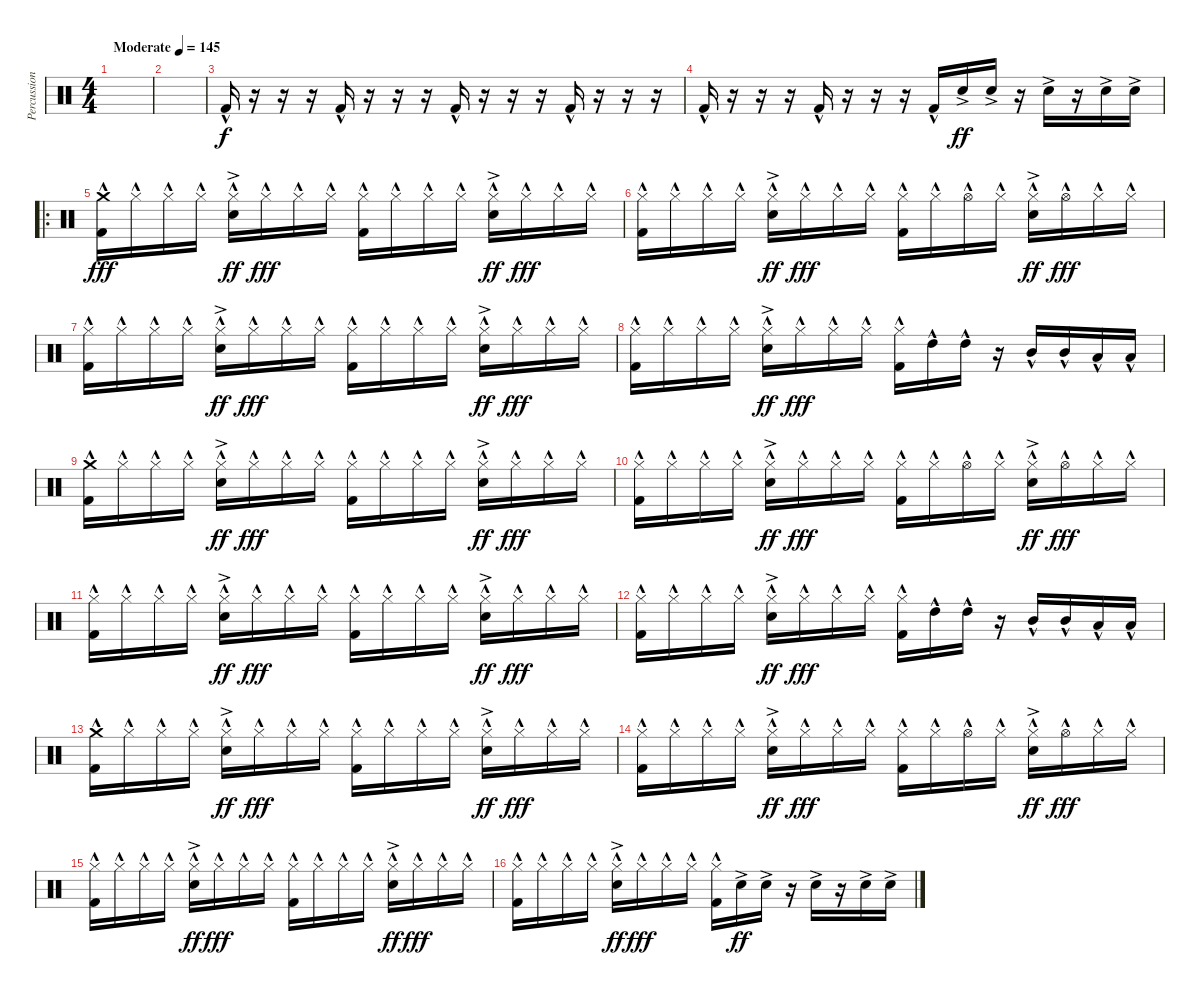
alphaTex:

\track ("Percussion" "Percussion") {instrument percussion bank 2}
\staff {score}
\articulation defaults
\ts (4 4)
\tempo (145 "Moderate")
\clef neutral
\ks c
|
|
"Kick (hit) 2"{hac}.16 r.16 r.16 r.16 "Kick (hit) 2"{hac}.16 r.16 r.16 r.16 "Kick (hit) 2"{hac}.16 r.16 r.16 r.16 "Kick (hit) 2"{hac}.16 r.16 r.16 r.16 |
"Kick (hit) 2"{hac}.16 r.16 r.16 r.16 "Kick (hit) 2"{hac}.16 r.16 r.16 r.16 "Kick (hit) 2"{hac}.16 "Snare (hit) 2"{ac}.16{dy ff} "Snare (hit) 2"{ac}.16 r.16 "Snare (hit) 2"{ac}.16 r.16 "Snare (hit) 2"{ac}.16 "Snare (hit) 2"{ac}.16 |
\ro
("Crash medium (hit)"{hac} "Kick (hit) 2"{hac}).16{dy fff} "Hi-Hat (closed)"{hac}.16 "Hi-Hat (closed)"{hac}.16 "Hi-Hat (closed)"{hac}.16 ("Hi-Hat (closed)"{hac} "Snare (hit) 2"{ac}).16{dy ff} "Hi-Hat (closed)"{hac}.16{dy fff} "Hi-Hat (closed)"{hac}.16 "Hi-Hat (closed)"{hac}.16 ("Hi-Hat (closed)"{hac} "Kick (hit) 2"{hac}).16 "Hi-Hat (closed)"{hac}.16 "Hi-Hat (closed)"{hac}.16 "Hi-Hat (closed)"{hac}.16 ("Hi-Hat (closed)"{hac} "Snare (hit) 2"{ac}).16{dy ff} "Hi-Hat (closed)"{hac}.16{dy fff} "Hi-Hat (closed)"{hac}.16 "Hi-Hat (closed)"{hac}.16 |
("Hi-Hat (closed)"{hac} "Kick (hit) 2"{hac}).16 "Hi-Hat (closed)"{hac}.16 "Hi-Hat (closed)"{hac}.16 "Hi-Hat (closed)"{hac}.16 ("Hi-Hat (closed)"{hac} "Snare (hit) 2"{ac}).16{dy ff} "Hi-Hat (closed)"{hac}.16{dy fff} "Hi-Hat (closed)"{hac}.16 "Hi-Hat (closed)"{hac}.16 ("Hi-Hat (closed)"{hac} "Kick (hit) 2"{hac}).16 "Hi-Hat (closed)"{hac}.16 "Hi-Hat (open)"{hac}.16 "Hi-Hat (closed)"{hac}.16 ("Hi-Hat (closed)"{hac} "Snare (hit) 2"{ac}).16{dy ff} "Hi-Hat (open)"{hac}.16{dy fff} "Hi-Hat (closed)"{hac}.16 "Hi-Hat (closed)"{hac}.16 |
("Hi-Hat (closed)"{hac} "Kick (hit) 2"{hac}).16 "Hi-Hat (closed)"{hac}.16 "Hi-Hat (closed)"{hac}.16 "Hi-Hat (closed)"{hac}.16 ("Hi-Hat (closed)"{hac} "Snare (hit) 2"{ac}).16{dy ff} "Hi-Hat (closed)"{hac}.16{dy fff} "Hi-Hat (closed)"{hac}.16 "Hi-Hat (closed)"{hac}.16 ("Hi-Hat (closed)"{hac} "Kick (hit) 2"{hac}).16 "Hi-Hat (closed)"{hac}.16 "Hi-Hat (closed)"{hac}.16 "Hi-Hat (closed)"{hac}.16 ("Hi-Hat (closed)"{hac} "Snare (hit) 2"{ac}).16{dy ff} "Hi-Hat (closed)"{hac}.16{dy fff} "Hi-Hat (closed)"{hac}.16 "Hi-Hat (closed)"{hac}.16 |
("Hi-Hat (closed)"{hac} "Kick (hit) 2"{hac}).16 "Hi-Hat (closed)"{hac}.16 "Hi-Hat (closed)"{hac}.16 "Hi-Hat (closed)"{hac}.16 ("Hi-Hat (closed)"{hac} "Snare (hit) 2"{ac}).16{dy ff} "Hi-Hat (closed)"{hac}.16{dy fff} "Hi-Hat (closed)"{hac}.16 "Hi-Hat (closed)"{hac}.16 ("Hi-Hat (closed)"{hac} "Kick (hit) 2"{hac}).16 "High Tom (hit)"{hac}.16 "High Tom (hit)"{hac}.16 r.16 "Mid Tom (hit)"{hac}.16 "Mid Tom (hit)"{hac}.16 "Low Tom (hit)"{hac}.16 "Low Tom (hit)"{hac}.16 |
("Crash medium (hit)"{hac} "Kick (hit) 2"{hac}).16 "Hi-Hat (closed)"{hac}.16 "Hi-Hat (closed)"{hac}.16 "Hi-Hat (closed)"{hac}.16 ("Hi-Hat (closed)"{hac} "Snare (hit) 2"{ac}).16{dy ff} "Hi-Hat (closed)"{hac}.16{dy fff} "Hi-Hat (closed)"{hac}.16 "Hi-Hat (closed)"{hac}.16 ("Hi-Hat (closed)"{hac} "Kick (hit) 2"{hac}).16 "Hi-Hat (closed)"{hac}.16 "Hi-Hat (closed)"{hac}.16 "Hi-Hat (closed)"{hac}.16 ("Hi-Hat (closed)"{hac} "Snare (hit) 2"{ac}).16{dy ff} "Hi-Hat (closed)"{hac}.16{dy fff} "Hi-Hat (closed)"{hac}.16 "Hi-Hat (closed)"{hac}.16 |
("Hi-Hat (closed)"{hac} "Kick (hit) 2"{hac}).16 "Hi-Hat (closed)"{hac}.16 "Hi-Hat (closed)"{hac}.16 "Hi-Hat (closed)"{hac}.16 ("Hi-Hat (closed)"{hac} "Snare (hit) 2"{ac}).16{dy ff} "Hi-Hat (closed)"{hac}.16{dy fff} "Hi-Hat (closed)"{hac}.16 "Hi-Hat (closed)"{hac}.16 ("Hi-Hat (closed)"{hac} "Kick (hit) 2"{hac}).16 "Hi-Hat (closed)"{hac}.16 "Hi-Hat (open)"{hac}.16 "Hi-Hat (closed)"{hac}.16 ("Hi-Hat (closed)"{hac} "Snare (hit) 2"{ac}).16{dy ff} "Hi-Hat (open)"{hac}.16{dy fff} "Hi-Hat (closed)"{hac}.16 "Hi-Hat (closed)"{hac}.16 |
("Hi-Hat (closed)"{hac} "Kick (hit) 2"{hac}).16 "Hi-Hat (closed)"{hac}.16 "Hi-Hat (closed)"{hac}.16 "Hi-Hat (closed)"{hac}.16 ("Hi-Hat (closed)"{hac} "Snare (hit) 2"{ac}).16{dy ff} "Hi-Hat (closed)"{hac}.16{dy fff} "Hi-Hat (closed)"{hac}.16 "Hi-Hat (closed)"{hac}.16 ("Hi-Hat (closed)"{hac} "Kick (hit) 2"{hac}).16 "Hi-Hat (closed)"{hac}.16 "Hi-Hat (closed)"{hac}.16 "Hi-Hat (closed)"{hac}.16 ("Hi-Hat (closed)"{hac} "Snare (hit) 2"{ac}).16{dy ff} "Hi-Hat (closed)"{hac}.16{dy fff} "Hi-Hat (closed)"{hac}.16 "Hi-Hat (closed)"{hac}.16 |
("Hi-Hat (closed)"{hac} "Kick (hit) 2"{hac}).16 "Hi-Hat (closed)"{hac}.16 "Hi-Hat (closed)"{hac}.16 "Hi-Hat (closed)"{hac}.16 ("Hi-Hat (closed)"{hac} "Snare (hit) 2"{ac}).16{dy ff} "Hi-Hat (closed)"{hac}.16{dy fff} "Hi-Hat (closed)"{hac}.16 "Hi-Hat (closed)"{hac}.16 ("Hi-Hat (closed)"{hac} "Kick (hit) 2"{hac}).16 "High Tom (hit)"{hac}.16 "High Tom (hit)"{hac}.16 r.16 "Mid Tom (hit)"{hac}.16 "Mid Tom (hit)"{hac}.16 "Low Tom (hit)"{hac}.16 "Low Tom (hit)"{hac}.16 |
("Crash medium (hit)"{hac} "Kick (hit) 2"{hac}).16 "Hi-Hat (closed)"{hac}.16 "Hi-Hat (closed)"{hac}.16 "Hi-Hat (closed)"{hac}.16 ("Hi-Hat (closed)"{hac} "Snare (hit) 2"{ac}).16{dy ff} "Hi-Hat (closed)"{hac}.16{dy fff} "Hi-Hat (closed)"{hac}.16 "Hi-Hat (closed)"{hac}.16 ("Hi-Hat (closed)"{hac} "Kick (hit) 2"{hac}).16 "Hi-Hat (closed)"{hac}.16 "Hi-Hat (closed)"{hac}.16 "Hi-Hat (closed)"{hac}.16 ("Hi-Hat (closed)"{hac} "Snare (hit) 2"{ac}).16{dy ff} "Hi-Hat (closed)"{hac}.16{dy fff} "Hi-Hat (closed)"{hac}.16 "Hi-Hat (closed)"{hac}.16 |
("Hi-Hat (closed)"{hac} "Kick (hit) 2"{hac}).16 "Hi-Hat (closed)"{hac}.16 "Hi-Hat (closed)"{hac}.16 "Hi-Hat (closed)"{hac}.16 ("Hi-Hat (closed)"{hac} "Snare (hit) 2"{ac}).16{dy ff} "Hi-Hat (closed)"{hac}.16{dy fff} "Hi-Hat (closed)"{hac}.16 "Hi-Hat (closed)"{hac}.16 ("Hi-Hat (closed)"{hac} "Kick (hit) 2"{hac}).16 "Hi-Hat (closed)"{hac}.16 "Hi-Hat (open)"{hac}.16 "Hi-Hat (closed)"{hac}.16 ("Hi-Hat (closed)"{hac} "Snare (hit) 2"{ac}).16{dy ff} "Hi-Hat (open)"{hac}.16{dy fff} "Hi-Hat (closed)"{hac}.16 "Hi-Hat (closed)"{hac}.16 |
("Hi-Hat (closed)"{hac} "Kick (hit) 2"{hac}).16 "Hi-Hat (closed)"{hac}.16 "Hi-Hat (closed)"{hac}.16 "Hi-Hat (closed)"{hac}.16 ("Hi-Hat (closed)"{hac} "Snare (hit) 2"{ac}).16{dy ff} "Hi-Hat (closed)"{hac}.16{dy fff} "Hi-Hat (closed)"{hac}.16 "Hi-Hat (closed)"{hac}.16 ("Hi-Hat (closed)"{hac} "Kick (hit) 2"{hac}).16 "Hi-Hat (closed)"{hac}.16 "Hi-Hat (closed)"{hac}.16 "Hi-Hat (closed)"{hac}.16 ("Hi-Hat (closed)"{hac} "Snare (hit) 2"{ac}).16{dy ff} "Hi-Hat (closed)"{hac}.16{dy fff} "Hi-Hat (closed)"{hac}.16 "Hi-Hat (closed)"{hac}.16 |
("Hi-Hat (closed)"{hac} "Kick (hit) 2"{hac}).16 "Hi-Hat (closed)"{hac}.16 "Hi-Hat (closed)"{hac}.16 "Hi-Hat (closed)"{hac}.16 ("Hi-Hat (closed)"{hac} "Snare (hit) 2"{ac}).16{dy ff} "Hi-Hat (closed)"{hac}.16{dy fff} "Hi-Hat (closed)"{hac}.16 "Hi-Hat (closed)"{hac}.16 ("Hi-Hat (closed)"{hac} "Kick (hit) 2"{hac}).16 "Snare (hit) 2"{ac}.16{dy ff} "Snare (hit) 2"{ac}.16 r.16 "Snare (hit) 2"{ac}.16 r.16 "Snare (hit) 2"{ac}.16 "Snare (hit) 2"{ac}.16
